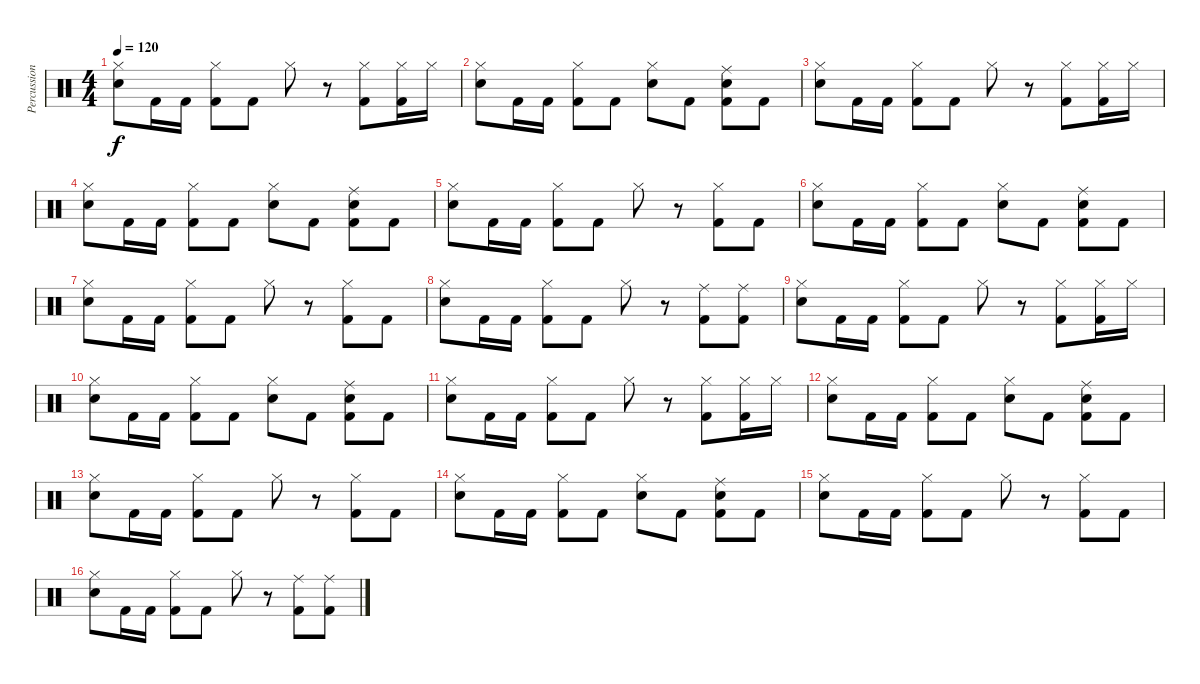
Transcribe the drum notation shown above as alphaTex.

\track ("Percussions" "Percussion") {instrument percussion}
\staff {score}
\articulation defaults
\ts (4 4)
\tempo 120
\clef neutral
\ks c
("Hi-Hat (closed)" "Snare (hit) 2").8{dy f} "Kick (hit) 2".16 "Kick (hit) 2".16 ("Hi-Hat (closed)" "Kick (hit) 2").8 "Kick (hit) 2".8 "Hi-Hat (closed)".8 r.8 ("Hi-Hat (closed)" "Kick (hit) 2").8 ("Hi-Hat (closed)" "Kick (hit) 2").16 "Hi-Hat (closed)".16 |
("Hi-Hat (closed)" "Snare (hit) 2").8 "Kick (hit) 2".16 "Kick (hit) 2".16 ("Hi-Hat (closed)" "Kick (hit) 2").8 "Kick (hit) 2".8 ("Hi-Hat (closed)" "Snare (hit) 2").8 "Kick (hit) 2".8 ("Ride (middle)" "Kick (hit) 2" "Snare (hit) 2").8 "Kick (hit) 2".8 |
("Hi-Hat (closed)" "Snare (hit) 2").8 "Kick (hit) 2".16 "Kick (hit) 2".16 ("Hi-Hat (closed)" "Kick (hit) 2").8 "Kick (hit) 2".8 "Hi-Hat (closed)".8 r.8 ("Hi-Hat (closed)" "Kick (hit) 2").8 ("Hi-Hat (closed)" "Kick (hit) 2").16 "Hi-Hat (closed)".16 |
("Hi-Hat (closed)" "Snare (hit) 2").8 "Kick (hit) 2".16 "Kick (hit) 2".16 ("Hi-Hat (closed)" "Kick (hit) 2").8 "Kick (hit) 2".8 ("Hi-Hat (closed)" "Snare (hit) 2").8 "Kick (hit) 2".8 ("Ride (middle)" "Kick (hit) 2" "Snare (hit) 2").8 "Kick (hit) 2".8 |
("Hi-Hat (closed)" "Snare (hit) 2").8 "Kick (hit) 2".16 "Kick (hit) 2".16 ("Hi-Hat (closed)" "Kick (hit) 2").8 "Kick (hit) 2".8 "Hi-Hat (closed)".8 r.8 ("Hi-Hat (closed)" "Kick (hit) 2").8 "Kick (hit) 2".8 |
("Hi-Hat (closed)" "Snare (hit) 2").8 "Kick (hit) 2".16 "Kick (hit) 2".16 ("Hi-Hat (closed)" "Kick (hit) 2").8 "Kick (hit) 2".8 ("Hi-Hat (closed)" "Snare (hit) 2").8 "Kick (hit) 2".8 ("Ride (middle)" "Kick (hit) 2" "Snare (hit) 2").8 "Kick (hit) 2".8 |
("Hi-Hat (closed)" "Snare (hit) 2").8 "Kick (hit) 2".16 "Kick (hit) 2".16 ("Hi-Hat (closed)" "Kick (hit) 2").8 "Kick (hit) 2".8 "Hi-Hat (closed)".8 r.8 ("Hi-Hat (closed)" "Kick (hit) 2").8 "Kick (hit) 2".8 |
("Hi-Hat (closed)" "Snare (hit) 2").8 "Kick (hit) 2".16 "Kick (hit) 2".16 ("Hi-Hat (closed)" "Kick (hit) 2").8 "Kick (hit) 2".8 "Hi-Hat (closed)".8 r.8 ("Ride (middle)" "Kick (hit) 2").8 ("Ride (middle)" "Kick (hit) 2").8 |
("Hi-Hat (closed)" "Snare (hit) 2").8 "Kick (hit) 2".16 "Kick (hit) 2".16 ("Hi-Hat (closed)" "Kick (hit) 2").8 "Kick (hit) 2".8 "Hi-Hat (closed)".8 r.8 ("Hi-Hat (closed)" "Kick (hit) 2").8 ("Hi-Hat (closed)" "Kick (hit) 2").16 "Hi-Hat (closed)".16 |
("Hi-Hat (closed)" "Snare (hit) 2").8 "Kick (hit) 2".16 "Kick (hit) 2".16 ("Hi-Hat (closed)" "Kick (hit) 2").8 "Kick (hit) 2".8 ("Hi-Hat (closed)" "Snare (hit) 2").8 "Kick (hit) 2".8 ("Ride (middle)" "Kick (hit) 2" "Snare (hit) 2").8 "Kick (hit) 2".8 |
("Hi-Hat (closed)" "Snare (hit) 2").8 "Kick (hit) 2".16 "Kick (hit) 2".16 ("Hi-Hat (closed)" "Kick (hit) 2").8 "Kick (hit) 2".8 "Hi-Hat (closed)".8 r.8 ("Hi-Hat (closed)" "Kick (hit) 2").8 ("Hi-Hat (closed)" "Kick (hit) 2").16 "Hi-Hat (closed)".16 |
("Hi-Hat (closed)" "Snare (hit) 2").8 "Kick (hit) 2".16 "Kick (hit) 2".16 ("Hi-Hat (closed)" "Kick (hit) 2").8 "Kick (hit) 2".8 ("Hi-Hat (closed)" "Snare (hit) 2").8 "Kick (hit) 2".8 ("Ride (middle)" "Kick (hit) 2" "Snare (hit) 2").8 "Kick (hit) 2".8 |
("Hi-Hat (closed)" "Snare (hit) 2").8 "Kick (hit) 2".16 "Kick (hit) 2".16 ("Hi-Hat (closed)" "Kick (hit) 2").8 "Kick (hit) 2".8 "Hi-Hat (closed)".8 r.8 ("Hi-Hat (closed)" "Kick (hit) 2").8 "Kick (hit) 2".8 |
("Hi-Hat (closed)" "Snare (hit) 2").8 "Kick (hit) 2".16 "Kick (hit) 2".16 ("Hi-Hat (closed)" "Kick (hit) 2").8 "Kick (hit) 2".8 ("Hi-Hat (closed)" "Snare (hit) 2").8 "Kick (hit) 2".8 ("Ride (middle)" "Kick (hit) 2" "Snare (hit) 2").8 "Kick (hit) 2".8 |
("Hi-Hat (closed)" "Snare (hit) 2").8 "Kick (hit) 2".16 "Kick (hit) 2".16 ("Hi-Hat (closed)" "Kick (hit) 2").8 "Kick (hit) 2".8 "Hi-Hat (closed)".8 r.8 ("Hi-Hat (closed)" "Kick (hit) 2").8 "Kick (hit) 2".8 |
("Hi-Hat (closed)" "Snare (hit) 2").8 "Kick (hit) 2".16 "Kick (hit) 2".16 ("Hi-Hat (closed)" "Kick (hit) 2").8 "Kick (hit) 2".8 "Hi-Hat (closed)".8 r.8 ("Ride (middle)" "Kick (hit) 2").8 ("Ride (middle)" "Kick (hit) 2").8
